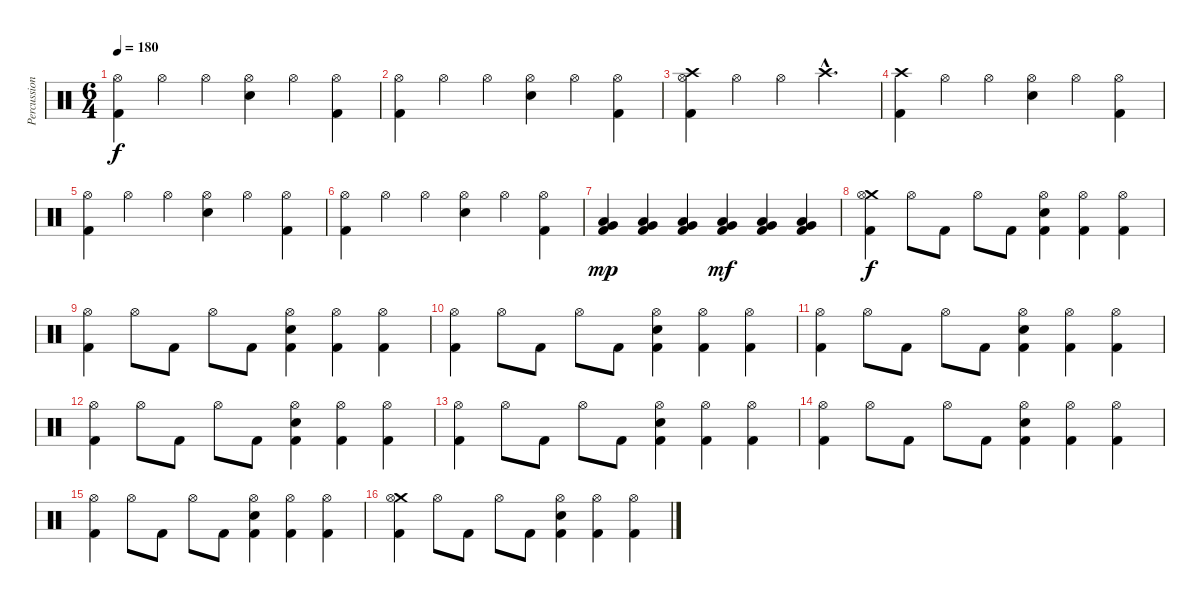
\track ("Percussion" "Percussion") {instrument percussion}
\staff {score}
\articulation defaults
\ts (6 4)
\tempo 180
\clef neutral
\ks c
("Hi-Hat (open)" "Kick (hit) 2").4{dy f} "Hi-Hat (open)".4 "Hi-Hat (open)".4 ("Hi-Hat (open)" "Electric Snare (hit)").4 "Hi-Hat (open)".4 ("Hi-Hat (open)" "Kick (hit) 2").4 |
("Hi-Hat (open)" "Kick (hit) 2").4 "Hi-Hat (open)".4 "Hi-Hat (open)".4 ("Hi-Hat (open)" "Electric Snare (hit)").4 "Hi-Hat (open)".4 ("Hi-Hat (open)" "Kick (hit) 2").4 |
("Crash high (hit)" "Hi-Hat (open)" "Kick (hit) 2").4 "Hi-Hat (open)".4 "Hi-Hat (open)".4 "Crash high (hit)"{hac}.2{d} |
("Crash high (hit)" "Kick (hit) 2").4 "Hi-Hat (open)".4 "Hi-Hat (open)".4 ("Hi-Hat (open)" "Electric Snare (hit)").4 "Hi-Hat (open)".4 ("Hi-Hat (open)" "Kick (hit) 2").4 |
("Hi-Hat (open)" "Kick (hit) 2").4 "Hi-Hat (open)".4 "Hi-Hat (open)".4 ("Hi-Hat (open)" "Electric Snare (hit)").4 "Hi-Hat (open)".4 ("Hi-Hat (open)" "Kick (hit) 2").4 |
("Hi-Hat (open)" "Kick (hit) 2").4 "Hi-Hat (open)".4 "Hi-Hat (open)".4 ("Hi-Hat (open)" "Electric Snare (hit)").4 "Hi-Hat (open)".4 ("Hi-Hat (open)" "Kick (hit) 2").4 |
("Low Floor Tom (hit)" "Very Low Tom (hit)" "Kick (hit) 2").4{dy mp} ("Low Floor Tom (hit)" "Very Low Tom (hit)" "Kick (hit) 2").4 ("Low Floor Tom (hit)" "Very Low Tom (hit)" "Kick (hit) 2").4 ("Low Floor Tom (hit)" "Very Low Tom (hit)" "Kick (hit) 2").4{dy mf} ("Low Floor Tom (hit)" "Very Low Tom (hit)" "Kick (hit) 2").4 ("Low Floor Tom (hit)" "Very Low Tom (hit)" "Kick (hit) 2").4 |
("Crash medium (hit)" "Hi-Hat (open)" "Kick (hit) 2").4{dy f} "Hi-Hat (open)".8 "Kick (hit) 2".8 "Hi-Hat (open)".8 "Kick (hit) 2".8 ("Hi-Hat (open)" "Electric Snare (hit)" "Kick (hit) 2").4 ("Hi-Hat (open)" "Kick (hit) 2").4 ("Hi-Hat (open)" "Kick (hit) 2").4 |
("Hi-Hat (open)" "Kick (hit) 2").4 "Hi-Hat (open)".8 "Kick (hit) 2".8 "Hi-Hat (open)".8 "Kick (hit) 2".8 ("Hi-Hat (open)" "Electric Snare (hit)" "Kick (hit) 2").4 ("Hi-Hat (open)" "Kick (hit) 2").4 ("Hi-Hat (open)" "Kick (hit) 2").4 |
("Hi-Hat (open)" "Kick (hit) 2").4 "Hi-Hat (open)".8 "Kick (hit) 2".8 "Hi-Hat (open)".8 "Kick (hit) 2".8 ("Hi-Hat (open)" "Electric Snare (hit)" "Kick (hit) 2").4 ("Hi-Hat (open)" "Kick (hit) 2").4 ("Hi-Hat (open)" "Kick (hit) 2").4 |
("Hi-Hat (open)" "Kick (hit) 2").4 "Hi-Hat (open)".8 "Kick (hit) 2".8 "Hi-Hat (open)".8 "Kick (hit) 2".8 ("Hi-Hat (open)" "Electric Snare (hit)" "Kick (hit) 2").4 ("Hi-Hat (open)" "Kick (hit) 2").4 ("Hi-Hat (open)" "Kick (hit) 2").4 |
("Hi-Hat (open)" "Kick (hit) 2").4 "Hi-Hat (open)".8 "Kick (hit) 2".8 "Hi-Hat (open)".8 "Kick (hit) 2".8 ("Hi-Hat (open)" "Electric Snare (hit)" "Kick (hit) 2").4 ("Hi-Hat (open)" "Kick (hit) 2").4 ("Hi-Hat (open)" "Kick (hit) 2").4 |
("Hi-Hat (open)" "Kick (hit) 2").4 "Hi-Hat (open)".8 "Kick (hit) 2".8 "Hi-Hat (open)".8 "Kick (hit) 2".8 ("Hi-Hat (open)" "Electric Snare (hit)" "Kick (hit) 2").4 ("Hi-Hat (open)" "Kick (hit) 2").4 ("Hi-Hat (open)" "Kick (hit) 2").4 |
("Hi-Hat (open)" "Kick (hit) 2").4 "Hi-Hat (open)".8 "Kick (hit) 2".8 "Hi-Hat (open)".8 "Kick (hit) 2".8 ("Hi-Hat (open)" "Electric Snare (hit)" "Kick (hit) 2").4 ("Hi-Hat (open)" "Kick (hit) 2").4 ("Hi-Hat (open)" "Kick (hit) 2").4 |
("Hi-Hat (open)" "Kick (hit) 2").4 "Hi-Hat (open)".8 "Kick (hit) 2".8 "Hi-Hat (open)".8 "Kick (hit) 2".8 ("Hi-Hat (open)" "Electric Snare (hit)" "Kick (hit) 2").4 ("Hi-Hat (open)" "Kick (hit) 2").4 ("Hi-Hat (open)" "Kick (hit) 2").4 |
("Crash medium (hit)" "Hi-Hat (open)" "Kick (hit) 2").4 "Hi-Hat (open)".8 "Kick (hit) 2".8 "Hi-Hat (open)".8 "Kick (hit) 2".8 ("Hi-Hat (open)" "Electric Snare (hit)" "Kick (hit) 2").4 ("Hi-Hat (open)" "Kick (hit) 2").4 ("Hi-Hat (open)" "Kick (hit) 2").4
